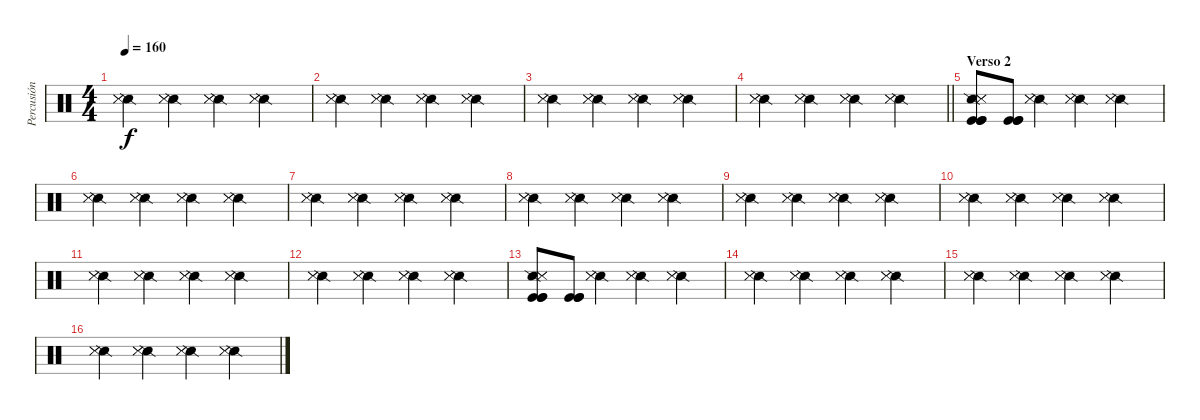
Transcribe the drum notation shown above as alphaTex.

\track ("Percusión" "Percusión") {instrument percussion}
\staff {score}
\articulation defaults
\ts (4 4)
\tempo 160
\clef neutral
\ks c
("Snare (side stick) 2" "Metronome (hit)" "Metronome (hit)").4{dy f} ("Snare (side stick) 2" "Metronome (hit)" "Metronome (hit)").4 ("Snare (side stick) 2" "Metronome (hit)" "Metronome (hit)").4 ("Snare (side stick) 2" "Metronome (hit)" "Metronome (hit)").4 |
("Snare (side stick) 2" "Metronome (hit)" "Metronome (hit)").4 ("Snare (side stick) 2" "Metronome (hit)" "Metronome (hit)").4 ("Snare (side stick) 2" "Metronome (hit)" "Metronome (hit)").4 ("Snare (side stick) 2" "Metronome (hit)" "Metronome (hit)").4 |
("Snare (side stick) 2" "Metronome (hit)" "Metronome (hit)").4 ("Snare (side stick) 2" "Metronome (hit)" "Metronome (hit)").4 ("Snare (side stick) 2" "Metronome (hit)" "Metronome (hit)").4 ("Snare (side stick) 2" "Metronome (hit)" "Metronome (hit)").4 |
\barLineRight lightlight
("Snare (side stick) 2" "Metronome (hit)" "Metronome (hit)").4 ("Snare (side stick) 2" "Metronome (hit)" "Metronome (hit)").4 ("Snare (side stick) 2" "Metronome (hit)" "Metronome (hit)").4 ("Snare (side stick) 2" "Metronome (hit)" "Metronome (hit)").4 |
\section ("" "Verso 2")
("Kick (hit)" "Kick (hit)" "Snare (side stick) 2" "Metronome (hit)" "Metronome (hit)" "Kick (hit)").8 ("Kick (hit)" "Kick (hit)" "Kick (hit)").8 ("Snare (side stick) 2" "Metronome (hit)" "Metronome (hit)").4 ("Snare (side stick) 2" "Metronome (hit)" "Metronome (hit)").4 ("Snare (side stick) 2" "Metronome (hit)" "Metronome (hit)").4 |
("Snare (side stick) 2" "Metronome (hit)" "Metronome (hit)").4 ("Snare (side stick) 2" "Metronome (hit)" "Metronome (hit)").4 ("Snare (side stick) 2" "Metronome (hit)" "Metronome (hit)").4 ("Snare (side stick) 2" "Metronome (hit)" "Metronome (hit)").4 |
("Snare (side stick) 2" "Metronome (hit)" "Metronome (hit)").4 ("Snare (side stick) 2" "Metronome (hit)" "Metronome (hit)").4 ("Snare (side stick) 2" "Metronome (hit)" "Metronome (hit)").4 ("Snare (side stick) 2" "Metronome (hit)" "Metronome (hit)").4 |
("Snare (side stick) 2" "Metronome (hit)" "Metronome (hit)").4 ("Snare (side stick) 2" "Metronome (hit)" "Metronome (hit)").4 ("Snare (side stick) 2" "Metronome (hit)" "Metronome (hit)").4 ("Snare (side stick) 2" "Metronome (hit)" "Metronome (hit)").4 |
("Snare (side stick) 2" "Metronome (hit)" "Metronome (hit)").4 ("Snare (side stick) 2" "Metronome (hit)" "Metronome (hit)").4 ("Snare (side stick) 2" "Metronome (hit)" "Metronome (hit)").4 ("Snare (side stick) 2" "Metronome (hit)" "Metronome (hit)").4 |
("Snare (side stick) 2" "Metronome (hit)" "Metronome (hit)").4 ("Snare (side stick) 2" "Metronome (hit)" "Metronome (hit)").4 ("Snare (side stick) 2" "Metronome (hit)" "Metronome (hit)").4 ("Snare (side stick) 2" "Metronome (hit)" "Metronome (hit)").4 |
("Snare (side stick) 2" "Metronome (hit)" "Metronome (hit)").4 ("Snare (side stick) 2" "Metronome (hit)" "Metronome (hit)").4 ("Snare (side stick) 2" "Metronome (hit)" "Metronome (hit)").4 ("Snare (side stick) 2" "Metronome (hit)" "Metronome (hit)").4 |
("Snare (side stick) 2" "Metronome (hit)" "Metronome (hit)").4 ("Snare (side stick) 2" "Metronome (hit)" "Metronome (hit)").4 ("Snare (side stick) 2" "Metronome (hit)" "Metronome (hit)").4 ("Snare (side stick) 2" "Metronome (hit)" "Metronome (hit)").4 |
("Kick (hit)" "Kick (hit)" "Snare (side stick) 2" "Metronome (hit)" "Metronome (hit)" "Kick (hit)").8 ("Kick (hit)" "Kick (hit)" "Kick (hit)").8 ("Snare (side stick) 2" "Metronome (hit)" "Metronome (hit)").4 ("Snare (side stick) 2" "Metronome (hit)" "Metronome (hit)").4 ("Snare (side stick) 2" "Metronome (hit)" "Metronome (hit)").4 |
("Snare (side stick) 2" "Metronome (hit)" "Metronome (hit)").4 ("Snare (side stick) 2" "Metronome (hit)" "Metronome (hit)").4 ("Snare (side stick) 2" "Metronome (hit)" "Metronome (hit)").4 ("Snare (side stick) 2" "Metronome (hit)" "Metronome (hit)").4 |
("Snare (side stick) 2" "Metronome (hit)" "Metronome (hit)").4 ("Snare (side stick) 2" "Metronome (hit)" "Metronome (hit)").4 ("Snare (side stick) 2" "Metronome (hit)" "Metronome (hit)").4 ("Snare (side stick) 2" "Metronome (hit)" "Metronome (hit)").4 |
("Snare (side stick) 2" "Metronome (hit)" "Metronome (hit)").4 ("Snare (side stick) 2" "Metronome (hit)" "Metronome (hit)").4 ("Snare (side stick) 2" "Metronome (hit)" "Metronome (hit)").4 ("Snare (side stick) 2" "Metronome (hit)" "Metronome (hit)").4
